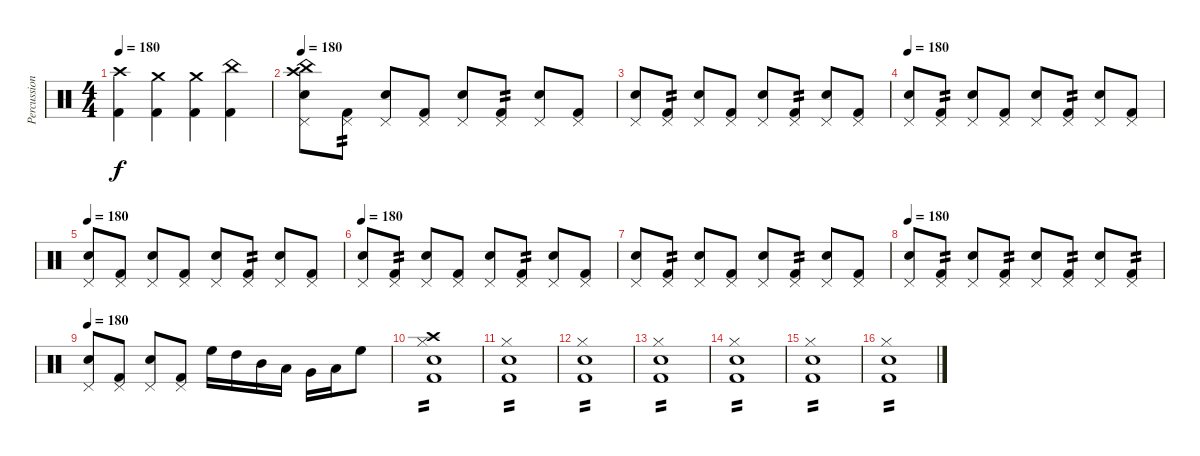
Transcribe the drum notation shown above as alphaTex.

\track ("Percussion" "Percussion") {instrument percussion}
\staff {score}
\articulation defaults
\ts (4 4)
\tempo 180
\tempo 200
\tempo 180
\clef neutral
\ks c
("Crash high (hit)" "Kick (hit) 2").4{dy f} ("Crash medium (hit)" "Kick (hit) 2").4 ("Crash medium (hit)" "Kick (hit) 2").4 ("China (hit)" "Kick (hit) 2").4 |
\tempo 180
("China (hit)" "Crash high (hit)" "Pedal Hi-Hat (hit)" "Electric Snare (hit)").8 ("Pedal Hi-Hat (hit)" "Kick (hit) 2").8{tp 2} ("Pedal Hi-Hat (hit)" "Electric Snare (hit)").8 ("Pedal Hi-Hat (hit)" "Kick (hit) 2").8 ("Pedal Hi-Hat (hit)" "Electric Snare (hit)").8 ("Pedal Hi-Hat (hit)" "Kick (hit) 2").8{tp 2} ("Pedal Hi-Hat (hit)" "Electric Snare (hit)").8 ("Pedal Hi-Hat (hit)" "Kick (hit) 2").8 |
("Pedal Hi-Hat (hit)" "Electric Snare (hit)").8 ("Pedal Hi-Hat (hit)" "Kick (hit) 2").8{tp 2} ("Pedal Hi-Hat (hit)" "Electric Snare (hit)").8 ("Pedal Hi-Hat (hit)" "Kick (hit) 2").8 ("Pedal Hi-Hat (hit)" "Electric Snare (hit)").8 ("Pedal Hi-Hat (hit)" "Kick (hit) 2").8{tp 2} ("Pedal Hi-Hat (hit)" "Electric Snare (hit)").8 ("Pedal Hi-Hat (hit)" "Kick (hit) 2").8 |
\tempo 180
("Pedal Hi-Hat (hit)" "Electric Snare (hit)").8 ("Pedal Hi-Hat (hit)" "Kick (hit) 2").8{tp 2} ("Pedal Hi-Hat (hit)" "Electric Snare (hit)").8 ("Pedal Hi-Hat (hit)" "Kick (hit) 2").8 ("Pedal Hi-Hat (hit)" "Electric Snare (hit)").8 ("Pedal Hi-Hat (hit)" "Kick (hit) 2").8{tp 2} ("Pedal Hi-Hat (hit)" "Electric Snare (hit)").8 ("Pedal Hi-Hat (hit)" "Kick (hit) 2").8 |
\tempo 180
("Pedal Hi-Hat (hit)" "Electric Snare (hit)").8 ("Pedal Hi-Hat (hit)" "Kick (hit) 2").8 ("Pedal Hi-Hat (hit)" "Electric Snare (hit)").8 ("Pedal Hi-Hat (hit)" "Kick (hit) 2").8 ("Pedal Hi-Hat (hit)" "Electric Snare (hit)").8 ("Pedal Hi-Hat (hit)" "Kick (hit) 2").8{tp 2} ("Pedal Hi-Hat (hit)" "Electric Snare (hit)").8 ("Pedal Hi-Hat (hit)" "Kick (hit) 2").8 |
\tempo 180
("Pedal Hi-Hat (hit)" "Electric Snare (hit)").8 ("Pedal Hi-Hat (hit)" "Kick (hit) 2").8{tp 2} ("Pedal Hi-Hat (hit)" "Electric Snare (hit)").8 ("Pedal Hi-Hat (hit)" "Kick (hit) 2").8 ("Pedal Hi-Hat (hit)" "Electric Snare (hit)").8 ("Pedal Hi-Hat (hit)" "Kick (hit) 2").8{tp 2} ("Pedal Hi-Hat (hit)" "Electric Snare (hit)").8 ("Pedal Hi-Hat (hit)" "Kick (hit) 2").8 |
("Pedal Hi-Hat (hit)" "Electric Snare (hit)").8 ("Pedal Hi-Hat (hit)" "Kick (hit) 2").8{tp 2} ("Pedal Hi-Hat (hit)" "Electric Snare (hit)").8 ("Pedal Hi-Hat (hit)" "Kick (hit) 2").8 ("Pedal Hi-Hat (hit)" "Electric Snare (hit)").8 ("Pedal Hi-Hat (hit)" "Kick (hit) 2").8{tp 2} ("Pedal Hi-Hat (hit)" "Electric Snare (hit)").8 ("Pedal Hi-Hat (hit)" "Kick (hit) 2").8 |
\tempo 180
("Pedal Hi-Hat (hit)" "Electric Snare (hit)").8 ("Pedal Hi-Hat (hit)" "Kick (hit) 2").8{tp 2} ("Pedal Hi-Hat (hit)" "Electric Snare (hit)").8 ("Pedal Hi-Hat (hit)" "Kick (hit) 2").8{tp 2} ("Pedal Hi-Hat (hit)" "Electric Snare (hit)").8 ("Pedal Hi-Hat (hit)" "Kick (hit) 2").8{tp 2} ("Pedal Hi-Hat (hit)" "Electric Snare (hit)").8 ("Pedal Hi-Hat (hit)" "Kick (hit) 2").8{tp 2} |
\tempo 180
("Pedal Hi-Hat (hit)" "Electric Snare (hit)").8 ("Pedal Hi-Hat (hit)" "Kick (hit) 2").8 ("Pedal Hi-Hat (hit)" "Electric Snare (hit)").8 ("Pedal Hi-Hat (hit)" "Kick (hit) 2").8 "High Floor Tom (hit)".16 "High Tom (hit)".16 "Mid Tom (hit)".16 "Low Tom (hit)".16 "Very Low Tom (hit)".16 "Low Floor Tom (hit)".16 "High Floor Tom (hit)".8 |
("Crash high (hit)" "Electric Snare (hit)" "Hi-Hat (closed)" "Kick (hit) 2").1{tp 2} |
("Electric Snare (hit)" "Hi-Hat (closed)" "Kick (hit) 2").1{tp 2} |
("Electric Snare (hit)" "Hi-Hat (closed)" "Kick (hit) 2").1{tp 2} |
("Electric Snare (hit)" "Hi-Hat (closed)" "Kick (hit) 2").1{tp 2} |
("Electric Snare (hit)" "Hi-Hat (closed)" "Kick (hit) 2").1{tp 2} |
("Electric Snare (hit)" "Hi-Hat (closed)" "Kick (hit) 2").1{tp 2} |
("Electric Snare (hit)" "Hi-Hat (closed)" "Kick (hit) 2").1{tp 2}
